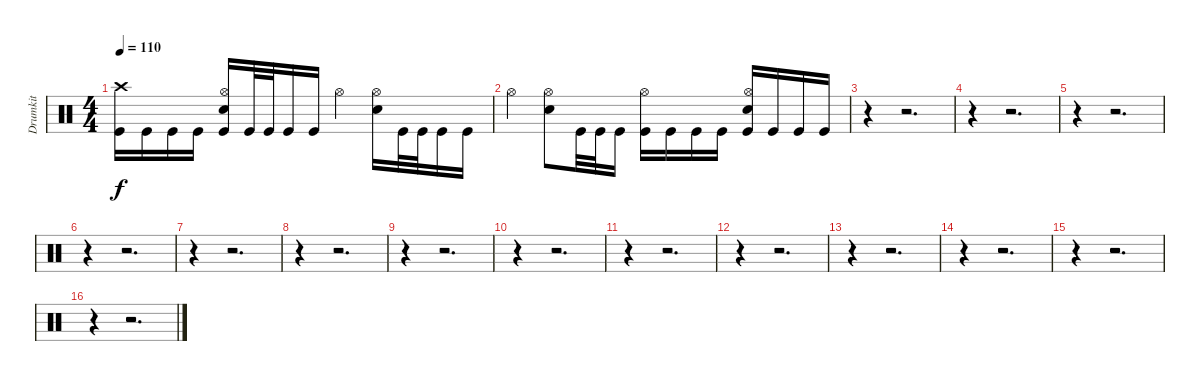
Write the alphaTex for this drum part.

\track ("Drumkit" "Drumkit") {instrument percussion}
\staff {score}
\articulation defaults
\ts (4 4)
\tempo 110
\clef neutral
\ks c
("Crash high (hit)" "Kick (hit)").16{dy f} "Kick (hit)".16 "Kick (hit)".16 "Kick (hit)".16 ("Hi-Hat (open)" "Snare (hit) 2" "Kick (hit)").16 "Kick (hit)".32 "Kick (hit)".32 "Kick (hit)".16 "Kick (hit)".16 "Hi-Hat (open)".4 ("Hi-Hat (open)" "Snare (hit) 2").16 "Kick (hit)".32 "Kick (hit)".32 "Kick (hit)".16 "Kick (hit)".16 |
"Hi-Hat (open)".4 ("Hi-Hat (open)" "Snare (hit) 2").8 "Kick (hit)".32 "Kick (hit)".32 "Kick (hit)".16 ("Hi-Hat (open)" "Kick (hit)").16 "Kick (hit)".16 "Kick (hit)".16 "Kick (hit)".16 ("Hi-Hat (open)" "Snare (hit) 2" "Kick (hit)").16 "Kick (hit)".16 "Kick (hit)".16 "Kick (hit)".16 |
r.4 r.2{d} |
r.4 r.2{d} |
r.4 r.2{d} |
r.4 r.2{d} |
r.4 r.2{d} |
r.4 r.2{d} |
r.4 r.2{d} |
r.4 r.2{d} |
r.4 r.2{d} |
r.4 r.2{d} |
r.4 r.2{d} |
r.4 r.2{d} |
r.4 r.2{d} |
r.4 r.2{d}
